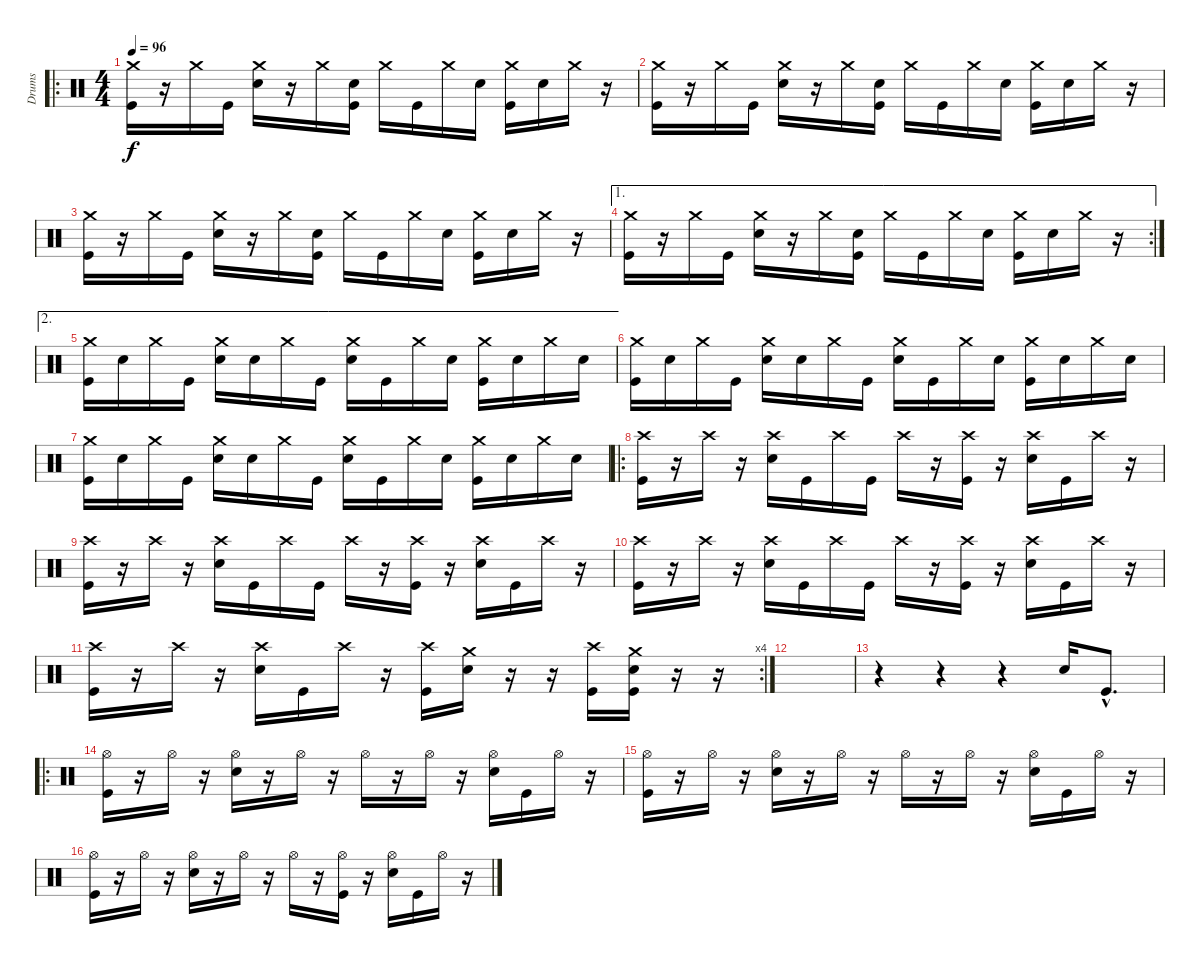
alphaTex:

\track ("Drums" "Drums") {instrument percussion}
\staff {score}
\articulation defaults
\ro
\ts (4 4)
\tempo 96
\clef neutral
\ks c
("Crash medium (hit)" "Kick (hit)").16{dy f} r.16 "Crash medium (hit)".16 "Kick (hit)".16 ("Crash medium (hit)" "Snare (hit) 2").16 r.16 "Crash medium (hit)".16 ("Snare (hit) 2" "Kick (hit)").16 "Crash medium (hit)".16 "Kick (hit)".16 "Crash medium (hit)".16 "Snare (hit) 2".16 ("Crash medium (hit)" "Kick (hit)").16 "Snare (hit) 2".16 "Crash medium (hit)".16 r.16 |
("Crash medium (hit)" "Kick (hit)").16 r.16 "Crash medium (hit)".16 "Kick (hit)".16 ("Crash medium (hit)" "Snare (hit) 2").16 r.16 "Crash medium (hit)".16 ("Snare (hit) 2" "Kick (hit)").16 "Crash medium (hit)".16 "Kick (hit)".16 "Crash medium (hit)".16 "Snare (hit) 2".16 ("Crash medium (hit)" "Kick (hit)").16 "Snare (hit) 2".16 "Crash medium (hit)".16 r.16 |
("Crash medium (hit)" "Kick (hit)").16 r.16 "Crash medium (hit)".16 "Kick (hit)".16 ("Crash medium (hit)" "Snare (hit) 2").16 r.16 "Crash medium (hit)".16 ("Snare (hit) 2" "Kick (hit)").16 "Crash medium (hit)".16 "Kick (hit)".16 "Crash medium (hit)".16 "Snare (hit) 2".16 ("Crash medium (hit)" "Kick (hit)").16 "Snare (hit) 2".16 "Crash medium (hit)".16 r.16 |
\ae 1
\rc 2
("Crash medium (hit)" "Kick (hit)").16 r.16 "Crash medium (hit)".16 "Kick (hit)".16 ("Crash medium (hit)" "Snare (hit) 2").16 r.16 "Crash medium (hit)".16 ("Snare (hit) 2" "Kick (hit)").16 "Crash medium (hit)".16 "Kick (hit)".16 "Crash medium (hit)".16 "Snare (hit) 2".16 ("Crash medium (hit)" "Kick (hit)").16 "Snare (hit) 2".16 "Crash medium (hit)".16 r.16 |
\ae 2
("Crash medium (hit)" "Kick (hit)").16 "Snare (hit) 2".16 "Crash medium (hit)".16 "Kick (hit)".16 ("Crash medium (hit)" "Snare (hit) 2").16 "Snare (hit) 2".16 "Crash medium (hit)".16 "Kick (hit)".16 ("Crash medium (hit)" "Snare (hit) 2").16 "Kick (hit)".16 "Crash medium (hit)".16 "Snare (hit) 2".16 ("Crash medium (hit)" "Kick (hit)").16 "Snare (hit) 2".16 "Crash medium (hit)".16 "Snare (hit) 2".16 |
("Crash medium (hit)" "Kick (hit)").16 "Snare (hit) 2".16 "Crash medium (hit)".16 "Kick (hit)".16 ("Crash medium (hit)" "Snare (hit) 2").16 "Snare (hit) 2".16 "Crash medium (hit)".16 "Kick (hit)".16 ("Crash medium (hit)" "Snare (hit) 2").16 "Kick (hit)".16 "Crash medium (hit)".16 "Snare (hit) 2".16 ("Crash medium (hit)" "Kick (hit)").16 "Snare (hit) 2".16 "Crash medium (hit)".16 "Snare (hit) 2".16 |
("Crash medium (hit)" "Kick (hit)").16 "Snare (hit) 2".16 "Crash medium (hit)".16 "Kick (hit)".16 ("Crash medium (hit)" "Snare (hit) 2").16 "Snare (hit) 2".16 "Crash medium (hit)".16 "Kick (hit)".16 ("Crash medium (hit)" "Snare (hit) 2").16 "Kick (hit)".16 "Crash medium (hit)".16 "Snare (hit) 2".16 ("Crash medium (hit)" "Kick (hit)").16 "Snare (hit) 2".16 "Crash medium (hit)".16 "Snare (hit) 2".16 |
\ro
("Crash high (hit)" "Kick (hit)").16 r.16 "Crash high (hit)".16 r.16 ("Crash high (hit)" "Snare (hit) 2").16 "Kick (hit)".16 "Crash high (hit)".16 "Kick (hit)".16 "Crash high (hit)".16 r.16 ("Crash high (hit)" "Kick (hit)").16 r.16 ("Crash high (hit)" "Snare (hit) 2").16 "Kick (hit)".16 "Crash high (hit)".16 r.16 |
("Crash high (hit)" "Kick (hit)").16 r.16 "Crash high (hit)".16 r.16 ("Crash high (hit)" "Snare (hit) 2").16 "Kick (hit)".16 "Crash high (hit)".16 "Kick (hit)".16 "Crash high (hit)".16 r.16 ("Crash high (hit)" "Kick (hit)").16 r.16 ("Crash high (hit)" "Snare (hit) 2").16 "Kick (hit)".16 "Crash high (hit)".16 r.16 |
("Crash high (hit)" "Kick (hit)").16 r.16 "Crash high (hit)".16 r.16 ("Crash high (hit)" "Snare (hit) 2").16 "Kick (hit)".16 "Crash high (hit)".16 "Kick (hit)".16 "Crash high (hit)".16 r.16 ("Crash high (hit)" "Kick (hit)").16 r.16 ("Crash high (hit)" "Snare (hit) 2").16 "Kick (hit)".16 "Crash high (hit)".16 r.16 |
\rc 4
("Crash high (hit)" "Kick (hit)").16 r.16 "Crash high (hit)".16 r.16 ("Crash high (hit)" "Snare (hit) 2").16 "Kick (hit)".16 "Crash high (hit)".16 r.16 ("Crash high (hit)" "Kick (hit)").16 ("Crash medium (hit)" "Snare (hit) 2").16 r.16 r.16 ("Crash high (hit)" "Kick (hit)").16 ("Crash medium (hit)" "Snare (hit) 2" "Kick (hit)").16 r.16 r.16 |
|
r.4 r.4 r.4 "Snare (hit) 2".16 "Kick (hit)"{hac}.8{d} |
\ro
("Hi-Hat (open)" "Kick (hit)").16 r.16 "Hi-Hat (open)".16 r.16 ("Hi-Hat (open)" "Snare (hit) 2").16 r.16 "Hi-Hat (open)".16 r.16 "Hi-Hat (open)".16 r.16 "Hi-Hat (open)".16 r.16 ("Hi-Hat (open)" "Snare (hit) 2").16 "Kick (hit)".16 "Hi-Hat (open)".16 r.16 |
("Hi-Hat (open)" "Kick (hit)").16 r.16 "Hi-Hat (open)".16 r.16 ("Hi-Hat (open)" "Snare (hit) 2").16 r.16 "Hi-Hat (open)".16 r.16 "Hi-Hat (open)".16 r.16 "Hi-Hat (open)".16 r.16 ("Hi-Hat (open)" "Snare (hit) 2").16 "Kick (hit)".16 "Hi-Hat (open)".16 r.16 |
("Hi-Hat (open)" "Kick (hit)").16 r.16 "Hi-Hat (open)".16 r.16 ("Hi-Hat (open)" "Snare (hit) 2").16 r.16 "Hi-Hat (open)".16 r.16 "Hi-Hat (open)".16 r.16 ("Hi-Hat (open)" "Kick (hit)").16 r.16 ("Hi-Hat (open)" "Snare (hit) 2").16 "Kick (hit)".16 "Hi-Hat (open)".16 r.16
